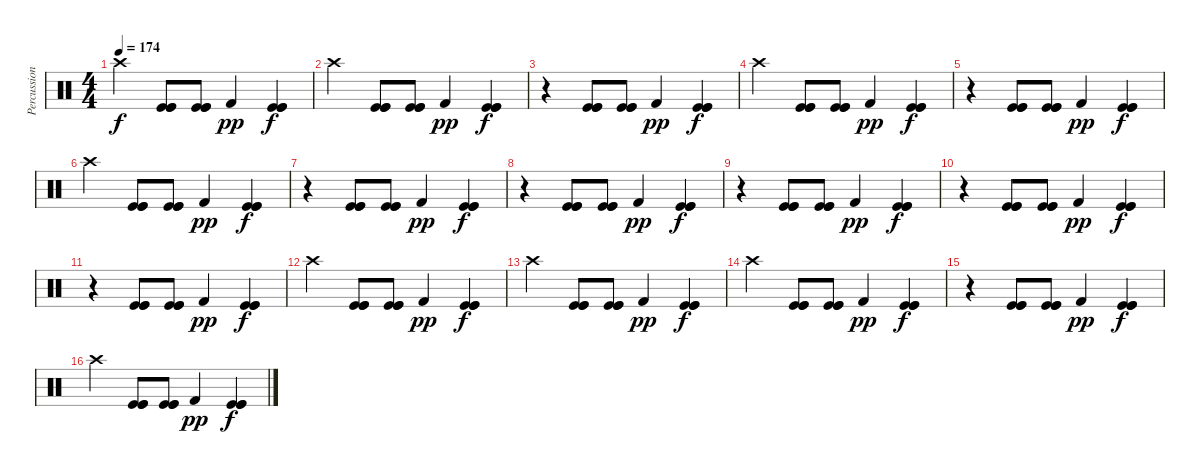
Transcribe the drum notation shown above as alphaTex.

\track ("Percussions" "Percussion") {instrument percussion}
\staff {score}
\articulation defaults
\ts (4 4)
\tempo 174
\clef neutral
\ks c "Crash high (hit)".4{dy f}
("Kick (hit)" "Kick (hit)" "Kick (hit)").8 ("Kick (hit)" "Kick (hit)" "Kick (hit)").8 "Kick (hit) 2".4{dy pp} ("Kick (hit)" "Kick (hit)" "Kick (hit)").4{dy f} |
"Crash high (hit)".4 ("Kick (hit)" "Kick (hit)" "Kick (hit)").8 ("Kick (hit)" "Kick (hit)" "Kick (hit)").8 "Kick (hit) 2".4{dy pp} ("Kick (hit)" "Kick (hit)" "Kick (hit)").4{dy f} |
r.4 ("Kick (hit)" "Kick (hit)" "Kick (hit)").8 ("Kick (hit)" "Kick (hit)" "Kick (hit)").8 "Kick (hit) 2".4{dy pp} ("Kick (hit)" "Kick (hit)" "Kick (hit)").4{dy f} |
"Crash high (hit)".4 ("Kick (hit)" "Kick (hit)" "Kick (hit)").8 ("Kick (hit)" "Kick (hit)" "Kick (hit)").8 "Kick (hit) 2".4{dy pp} ("Kick (hit)" "Kick (hit)" "Kick (hit)").4{dy f} |
r.4 ("Kick (hit)" "Kick (hit)" "Kick (hit)").8 ("Kick (hit)" "Kick (hit)" "Kick (hit)").8 "Kick (hit) 2".4{dy pp} ("Kick (hit)" "Kick (hit)" "Kick (hit)").4{dy f} |
"Crash high (hit)".4 ("Kick (hit)" "Kick (hit)" "Kick (hit)").8 ("Kick (hit)" "Kick (hit)" "Kick (hit)").8 "Kick (hit) 2".4{dy pp} ("Kick (hit)" "Kick (hit)" "Kick (hit)").4{dy f} |
r.4 ("Kick (hit)" "Kick (hit)" "Kick (hit)").8 ("Kick (hit)" "Kick (hit)" "Kick (hit)").8 "Kick (hit) 2".4{dy pp} ("Kick (hit)" "Kick (hit)" "Kick (hit)").4{dy f} |
r.4 ("Kick (hit)" "Kick (hit)" "Kick (hit)").8 ("Kick (hit)" "Kick (hit)" "Kick (hit)").8 "Kick (hit) 2".4{dy pp} ("Kick (hit)" "Kick (hit)" "Kick (hit)").4{dy f} |
r.4 ("Kick (hit)" "Kick (hit)" "Kick (hit)").8 ("Kick (hit)" "Kick (hit)" "Kick (hit)").8 "Kick (hit) 2".4{dy pp} ("Kick (hit)" "Kick (hit)" "Kick (hit)").4{dy f} |
r.4 ("Kick (hit)" "Kick (hit)" "Kick (hit)").8 ("Kick (hit)" "Kick (hit)" "Kick (hit)").8 "Kick (hit) 2".4{dy pp} ("Kick (hit)" "Kick (hit)" "Kick (hit)").4{dy f} |
r.4 ("Kick (hit)" "Kick (hit)" "Kick (hit)").8 ("Kick (hit)" "Kick (hit)" "Kick (hit)").8 "Kick (hit) 2".4{dy pp} ("Kick (hit)" "Kick (hit)" "Kick (hit)").4{dy f} |
"Crash high (hit)".4 ("Kick (hit)" "Kick (hit)" "Kick (hit)").8 ("Kick (hit)" "Kick (hit)" "Kick (hit)").8 "Kick (hit) 2".4{dy pp} ("Kick (hit)" "Kick (hit)" "Kick (hit)").4{dy f} |
"Crash high (hit)".4 ("Kick (hit)" "Kick (hit)" "Kick (hit)").8 ("Kick (hit)" "Kick (hit)" "Kick (hit)").8 "Kick (hit) 2".4{dy pp} ("Kick (hit)" "Kick (hit)" "Kick (hit)").4{dy f} |
"Crash high (hit)".4 ("Kick (hit)" "Kick (hit)" "Kick (hit)").8 ("Kick (hit)" "Kick (hit)" "Kick (hit)").8 "Kick (hit) 2".4{dy pp} ("Kick (hit)" "Kick (hit)" "Kick (hit)").4{dy f} |
r.4 ("Kick (hit)" "Kick (hit)" "Kick (hit)").8 ("Kick (hit)" "Kick (hit)" "Kick (hit)").8 "Kick (hit) 2".4{dy pp} ("Kick (hit)" "Kick (hit)" "Kick (hit)").4{dy f} |
"Crash high (hit)".4 ("Kick (hit)" "Kick (hit)" "Kick (hit)").8 ("Kick (hit)" "Kick (hit)" "Kick (hit)").8 "Kick (hit) 2".4{dy pp} ("Kick (hit)" "Kick (hit)" "Kick (hit)").4{dy f}
